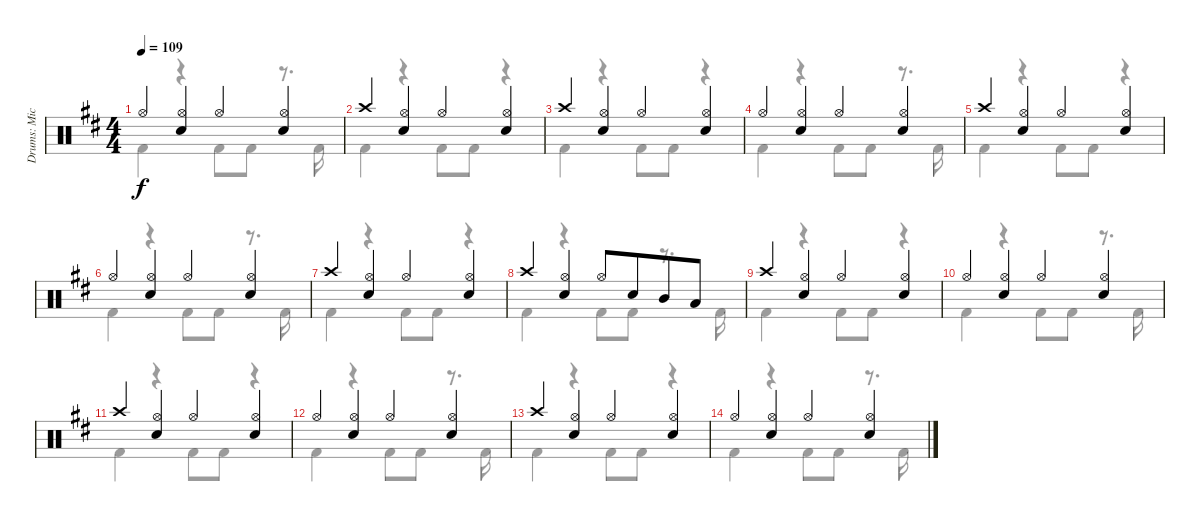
\track ("Drums: Mick" "Drums: Mic") {instrument percussion}
\staff {score}
\articulation defaults
\voice
\ts (4 4)
\tempo 109
\clef neutral
\ks d "Hi-Hat (open)".4{dy f}
("Hi-Hat (open)" "Snare (hit) 2").4 "Hi-Hat (open)".4 ("Hi-Hat (open)" "Snare (hit) 2").4 |
"Crash high (hit)".4 ("Hi-Hat (open)" "Snare (hit) 2").4 "Hi-Hat (open)".4 ("Hi-Hat (open)" "Snare (hit) 2").4 |
"Crash high (hit)".4 ("Hi-Hat (open)" "Snare (hit) 2").4 "Hi-Hat (open)".4 ("Hi-Hat (open)" "Snare (hit) 2").4 |
"Hi-Hat (open)".4 ("Hi-Hat (open)" "Snare (hit) 2").4 "Hi-Hat (open)".4 ("Hi-Hat (open)" "Snare (hit) 2").4 |
"Crash high (hit)".4 ("Hi-Hat (open)" "Snare (hit) 2").4 "Hi-Hat (open)".4 ("Hi-Hat (open)" "Snare (hit) 2").4 |
"Hi-Hat (open)".4 ("Hi-Hat (open)" "Snare (hit) 2").4 "Hi-Hat (open)".4 ("Hi-Hat (open)" "Snare (hit) 2").4 |
"Crash high (hit)".4 ("Hi-Hat (open)" "Snare (hit) 2").4 "Hi-Hat (open)".4 ("Hi-Hat (open)" "Snare (hit) 2").4 |
"Crash high (hit)".4 ("Hi-Hat (open)" "Snare (hit) 2").4 "Hi-Hat (open)".8 "Snare (hit) 2".8{beam merge} "Mid Tom (hit)".8 "Low Tom (hit)".8 |
"Crash high (hit)".4 ("Hi-Hat (open)" "Snare (hit) 2").4 "Hi-Hat (open)".4 ("Hi-Hat (open)" "Snare (hit) 2").4 |
"Hi-Hat (open)".4 ("Hi-Hat (open)" "Snare (hit) 2").4 "Hi-Hat (open)".4 ("Hi-Hat (open)" "Snare (hit) 2").4 |
"Crash high (hit)".4 ("Hi-Hat (open)" "Snare (hit) 2").4 "Hi-Hat (open)".4 ("Hi-Hat (open)" "Snare (hit) 2").4 |
"Hi-Hat (open)".4 ("Hi-Hat (open)" "Snare (hit) 2").4 "Hi-Hat (open)".4 ("Hi-Hat (open)" "Snare (hit) 2").4 |
"Crash high (hit)".4 ("Hi-Hat (open)" "Snare (hit) 2").4 "Hi-Hat (open)".4 ("Hi-Hat (open)" "Snare (hit) 2").4 |
"Hi-Hat (open)".4 ("Hi-Hat (open)" "Snare (hit) 2").4 "Hi-Hat (open)".4 ("Hi-Hat (open)" "Snare (hit) 2").4
\voice
\clef neutral
\ottava regular
\simile none
\ks d "Kick (hit) 2".4{dy f}
r.4 "Kick (hit) 2".8 "Kick (hit) 2".8 r.8{d} "Kick (hit) 2".16 |
"Kick (hit) 2".4 r.4 "Kick (hit) 2".8 "Kick (hit) 2".8 r.4 |
"Kick (hit) 2".4 r.4 "Kick (hit) 2".8 "Kick (hit) 2".8 r.4 |
"Kick (hit) 2".4 r.4 "Kick (hit) 2".8 "Kick (hit) 2".8 r.8{d} "Kick (hit) 2".16 |
"Kick (hit) 2".4 r.4 "Kick (hit) 2".8 "Kick (hit) 2".8 r.4 |
"Kick (hit) 2".4 r.4 "Kick (hit) 2".8 "Kick (hit) 2".8 r.8{d} "Kick (hit) 2".16 |
"Kick (hit) 2".4 r.4 "Kick (hit) 2".8 "Kick (hit) 2".8 r.4 |
"Kick (hit) 2".4 r.4 "Kick (hit) 2".8 "Kick (hit) 2".8 r.8{d} "Kick (hit) 2".16 |
"Kick (hit) 2".4 r.4 "Kick (hit) 2".8 "Kick (hit) 2".8 r.4 |
"Kick (hit) 2".4 r.4 "Kick (hit) 2".8 "Kick (hit) 2".8 r.8{d} "Kick (hit) 2".16 |
"Kick (hit) 2".4 r.4 "Kick (hit) 2".8 "Kick (hit) 2".8 r.4 |
"Kick (hit) 2".4 r.4 "Kick (hit) 2".8 "Kick (hit) 2".8 r.8{d} "Kick (hit) 2".16 |
"Kick (hit) 2".4 r.4 "Kick (hit) 2".8 "Kick (hit) 2".8 r.4 |
"Kick (hit) 2".4 r.4 "Kick (hit) 2".8 "Kick (hit) 2".8 r.8{d} "Kick (hit) 2".16
